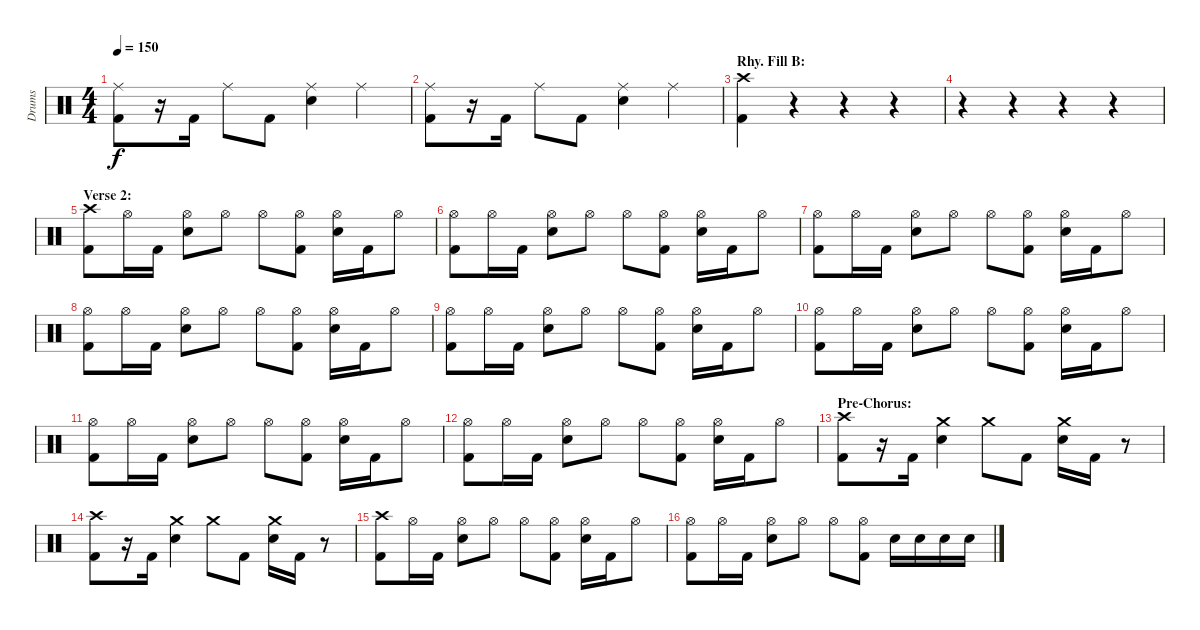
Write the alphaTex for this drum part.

\track ("Drums" "Drums") {instrument percussion}
\staff {score}
\articulation defaults
\ts (4 4)
\tempo 150
\clef neutral
\ks c
("Ride (middle)" "Kick (hit) 2").8{dy f} r.16 "Kick (hit) 2".16 "Ride (middle)".8 "Kick (hit) 2".8 ("Ride (middle)" "Electric Snare (hit)").4 "Ride (middle)".4 |
("Ride (middle)" "Kick (hit) 2").8 r.16 "Kick (hit) 2".16 "Ride (middle)".8 "Kick (hit) 2".8 ("Ride (middle)" "Electric Snare (hit)").4 "Ride (middle)".4 |
\section ("" "Rhy. Fill B:")
("Crash high (hit)" "Kick (hit) 2").4 r.4 r.4 r.4 |
r.4 r.4 r.4 r.4 |
\section ("" "Verse 2:")
("Crash high (hit)" "Kick (hit) 2").8 "Hi-Hat (open)".16 "Kick (hit) 2".16 ("Hi-Hat (open)" "Electric Snare (hit)").8 "Hi-Hat (open)".8 "Hi-Hat (open)".8 ("Hi-Hat (open)" "Kick (hit) 2").8 ("Hi-Hat (open)" "Electric Snare (hit)").16 "Kick (hit) 2".16 "Hi-Hat (open)".8 |
("Hi-Hat (open)" "Kick (hit) 2").8 "Hi-Hat (open)".16 "Kick (hit) 2".16 ("Hi-Hat (open)" "Electric Snare (hit)").8 "Hi-Hat (open)".8 "Hi-Hat (open)".8 ("Hi-Hat (open)" "Kick (hit) 2").8 ("Hi-Hat (open)" "Electric Snare (hit)").16 "Kick (hit) 2".16 "Hi-Hat (open)".8 |
("Hi-Hat (open)" "Kick (hit) 2").8 "Hi-Hat (open)".16 "Kick (hit) 2".16 ("Hi-Hat (open)" "Electric Snare (hit)").8 "Hi-Hat (open)".8 "Hi-Hat (open)".8 ("Hi-Hat (open)" "Kick (hit) 2").8 ("Hi-Hat (open)" "Electric Snare (hit)").16 "Kick (hit) 2".16 "Hi-Hat (open)".8 |
("Hi-Hat (open)" "Kick (hit) 2").8 "Hi-Hat (open)".16 "Kick (hit) 2".16 ("Hi-Hat (open)" "Electric Snare (hit)").8 "Hi-Hat (open)".8 "Hi-Hat (open)".8 ("Hi-Hat (open)" "Kick (hit) 2").8 ("Hi-Hat (open)" "Electric Snare (hit)").16 "Kick (hit) 2".16 "Hi-Hat (open)".8 |
("Hi-Hat (open)" "Kick (hit) 2").8 "Hi-Hat (open)".16 "Kick (hit) 2".16 ("Hi-Hat (open)" "Electric Snare (hit)").8 "Hi-Hat (open)".8 "Hi-Hat (open)".8 ("Hi-Hat (open)" "Kick (hit) 2").8 ("Hi-Hat (open)" "Electric Snare (hit)").16 "Kick (hit) 2".16 "Hi-Hat (open)".8 |
("Hi-Hat (open)" "Kick (hit) 2").8 "Hi-Hat (open)".16 "Kick (hit) 2".16 ("Hi-Hat (open)" "Electric Snare (hit)").8 "Hi-Hat (open)".8 "Hi-Hat (open)".8 ("Hi-Hat (open)" "Kick (hit) 2").8 ("Hi-Hat (open)" "Electric Snare (hit)").16 "Kick (hit) 2".16 "Hi-Hat (open)".8 |
("Hi-Hat (open)" "Kick (hit) 2").8 "Hi-Hat (open)".16 "Kick (hit) 2".16 ("Hi-Hat (open)" "Electric Snare (hit)").8 "Hi-Hat (open)".8 "Hi-Hat (open)".8 ("Hi-Hat (open)" "Kick (hit) 2").8 ("Hi-Hat (open)" "Electric Snare (hit)").16 "Kick (hit) 2".16 "Hi-Hat (open)".8 |
("Hi-Hat (open)" "Kick (hit) 2").8 "Hi-Hat (open)".16 "Kick (hit) 2".16 ("Hi-Hat (open)" "Electric Snare (hit)").8 "Hi-Hat (open)".8 "Hi-Hat (open)".8 ("Hi-Hat (open)" "Kick (hit) 2").8 ("Hi-Hat (open)" "Electric Snare (hit)").16 "Kick (hit) 2".16 "Hi-Hat (open)".8 |
\section ("" "Pre-Chorus:")
("Crash high (hit)" "Kick (hit) 2").8 r.16 "Kick (hit) 2".16 ("Crash medium (hit)" "Electric Snare (hit)").4 "Crash medium (hit)".8 "Kick (hit) 2".8 ("Crash medium (hit)" "Electric Snare (hit)").16 "Kick (hit) 2".16 r.8 |
("Crash high (hit)" "Kick (hit) 2").8 r.16 "Kick (hit) 2".16 ("Crash medium (hit)" "Electric Snare (hit)").4 "Crash medium (hit)".8 "Kick (hit) 2".8 ("Crash medium (hit)" "Electric Snare (hit)").16 "Kick (hit) 2".16 r.8 |
("Crash high (hit)" "Kick (hit) 2").8 "Hi-Hat (open)".16 "Kick (hit) 2".16 ("Hi-Hat (open)" "Electric Snare (hit)").8 "Hi-Hat (open)".8 "Hi-Hat (open)".8 ("Hi-Hat (open)" "Kick (hit) 2").8 ("Hi-Hat (open)" "Electric Snare (hit)").16 "Kick (hit) 2".16 "Hi-Hat (open)".8 |
("Hi-Hat (open)" "Kick (hit) 2").8 "Hi-Hat (open)".16 "Kick (hit) 2".16 ("Hi-Hat (open)" "Electric Snare (hit)").8 "Hi-Hat (open)".8 "Hi-Hat (open)".8 ("Hi-Hat (open)" "Kick (hit) 2").8 "Electric Snare (hit)".16 "Electric Snare (hit)".16 "Electric Snare (hit)".16 "Electric Snare (hit)".16
